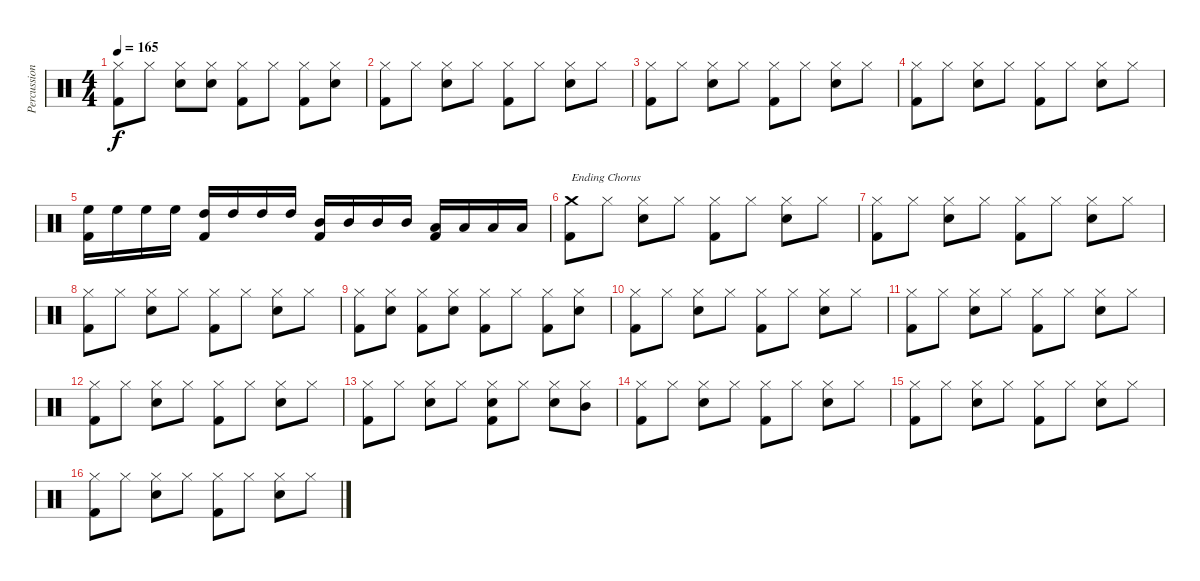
\track ("Percussion" "Percussion") {instrument percussion}
\staff {score}
\articulation defaults
\ts (4 4)
\tempo 165
\clef neutral
\ks c
("Hi-Hat (closed)" "Kick (hit) 2").8{dy f} "Hi-Hat (closed)".8 ("Hi-Hat (closed)" "Snare (hit) 2").8 ("Hi-Hat (closed)" "Snare (hit) 2").8 ("Hi-Hat (closed)" "Kick (hit) 2").8 "Hi-Hat (closed)".8 ("Hi-Hat (closed)" "Kick (hit) 2").8 ("Hi-Hat (closed)" "Snare (hit) 2").8 |
("Hi-Hat (closed)" "Kick (hit) 2").8 "Hi-Hat (closed)".8 ("Hi-Hat (closed)" "Snare (hit) 2").8 "Hi-Hat (closed)".8 ("Hi-Hat (closed)" "Kick (hit) 2").8 "Hi-Hat (closed)".8 ("Hi-Hat (closed)" "Snare (hit) 2").8 "Hi-Hat (closed)".8 |
("Hi-Hat (closed)" "Kick (hit) 2").8 "Hi-Hat (closed)".8 ("Hi-Hat (closed)" "Snare (hit) 2").8 "Hi-Hat (closed)".8 ("Hi-Hat (closed)" "Kick (hit) 2").8 "Hi-Hat (closed)".8 ("Hi-Hat (closed)" "Snare (hit) 2").8 "Hi-Hat (closed)".8 |
("Hi-Hat (closed)" "Kick (hit) 2").8 "Hi-Hat (closed)".8 ("Hi-Hat (closed)" "Snare (hit) 2").8 "Hi-Hat (closed)".8 ("Hi-Hat (closed)" "Kick (hit) 2").8 "Hi-Hat (closed)".8 ("Hi-Hat (closed)" "Snare (hit) 2").8 "Hi-Hat (closed)".8 |
("High Floor Tom (hit)" "Kick (hit) 2").16 "High Floor Tom (hit)".16 "High Floor Tom (hit)".16 "High Floor Tom (hit)".16 ("High Tom (hit)" "Kick (hit) 2").16 "High Tom (hit)".16 "High Tom (hit)".16 "High Tom (hit)".16 ("Mid Tom (hit)" "Kick (hit) 2").16 "Mid Tom (hit)".16 "Mid Tom (hit)".16 "Mid Tom (hit)".16 ("Low Tom (hit)" "Kick (hit) 2").16 "Low Tom (hit)".16 "Low Tom (hit)".16 "Low Tom (hit)".16 |
("Crash medium (hit)" "Kick (hit) 2").8{txt "Ending Chorus"} "Hi-Hat (closed)".8 ("Hi-Hat (closed)" "Snare (hit) 2").8 "Hi-Hat (closed)".8 ("Hi-Hat (closed)" "Kick (hit) 2").8 "Hi-Hat (closed)".8 ("Hi-Hat (closed)" "Snare (hit) 2").8 "Hi-Hat (closed)".8 |
("Hi-Hat (closed)" "Kick (hit) 2").8 "Hi-Hat (closed)".8 ("Hi-Hat (closed)" "Snare (hit) 2").8 "Hi-Hat (closed)".8 ("Hi-Hat (closed)" "Kick (hit) 2").8 "Hi-Hat (closed)".8 ("Hi-Hat (closed)" "Snare (hit) 2").8 "Hi-Hat (closed)".8 |
("Hi-Hat (closed)" "Kick (hit) 2").8 "Hi-Hat (closed)".8 ("Hi-Hat (closed)" "Snare (hit) 2").8 "Hi-Hat (closed)".8 ("Hi-Hat (closed)" "Kick (hit) 2").8 "Hi-Hat (closed)".8 ("Hi-Hat (closed)" "Snare (hit) 2").8 "Hi-Hat (closed)".8 |
("Hi-Hat (closed)" "Kick (hit) 2").8 ("Hi-Hat (closed)" "Snare (hit) 2").8 ("Hi-Hat (closed)" "Kick (hit) 2").8 ("Hi-Hat (closed)" "Snare (hit) 2").8 ("Hi-Hat (closed)" "Kick (hit) 2").8 "Hi-Hat (closed)".8 ("Hi-Hat (closed)" "Kick (hit) 2").8 ("Hi-Hat (closed)" "Snare (hit) 2").8 |
("Hi-Hat (closed)" "Kick (hit) 2").8 "Hi-Hat (closed)".8 ("Hi-Hat (closed)" "Snare (hit) 2").8 "Hi-Hat (closed)".8 ("Hi-Hat (closed)" "Kick (hit) 2").8 "Hi-Hat (closed)".8 ("Hi-Hat (closed)" "Snare (hit) 2").8 "Hi-Hat (closed)".8 |
("Hi-Hat (closed)" "Kick (hit) 2").8 "Hi-Hat (closed)".8 ("Hi-Hat (closed)" "Snare (hit) 2").8 "Hi-Hat (closed)".8 ("Hi-Hat (closed)" "Kick (hit) 2").8 "Hi-Hat (closed)".8 ("Hi-Hat (closed)" "Snare (hit) 2").8 "Hi-Hat (closed)".8 |
("Hi-Hat (closed)" "Kick (hit) 2").8 "Hi-Hat (closed)".8 ("Hi-Hat (closed)" "Snare (hit) 2").8 "Hi-Hat (closed)".8 ("Hi-Hat (closed)" "Kick (hit) 2").8 "Hi-Hat (closed)".8 ("Hi-Hat (closed)" "Snare (hit) 2").8 "Hi-Hat (closed)".8 |
("Hi-Hat (closed)" "Kick (hit) 2").8 "Hi-Hat (closed)".8 ("Hi-Hat (closed)" "Snare (hit) 2").8 "Hi-Hat (closed)".8 ("Hi-Hat (closed)" "Snare (hit) 2" "Kick (hit) 2").8 "Hi-Hat (closed)".8 ("Hi-Hat (closed)" "Snare (hit) 2").8 ("Hi-Hat (closed)" "Mid Tom (hit)").8 |
("Hi-Hat (closed)" "Kick (hit) 2").8 "Hi-Hat (closed)".8 ("Hi-Hat (closed)" "Snare (hit) 2").8 "Hi-Hat (closed)".8 ("Hi-Hat (closed)" "Kick (hit) 2").8 "Hi-Hat (closed)".8 ("Hi-Hat (closed)" "Snare (hit) 2").8 "Hi-Hat (closed)".8 |
("Hi-Hat (closed)" "Kick (hit) 2").8 "Hi-Hat (closed)".8 ("Hi-Hat (closed)" "Snare (hit) 2").8 "Hi-Hat (closed)".8 ("Hi-Hat (closed)" "Kick (hit) 2").8 "Hi-Hat (closed)".8 ("Hi-Hat (closed)" "Snare (hit) 2").8 "Hi-Hat (closed)".8 |
("Hi-Hat (closed)" "Kick (hit) 2").8 "Hi-Hat (closed)".8 ("Hi-Hat (closed)" "Snare (hit) 2").8 "Hi-Hat (closed)".8 ("Hi-Hat (closed)" "Kick (hit) 2").8 "Hi-Hat (closed)".8 ("Hi-Hat (closed)" "Snare (hit) 2").8 "Hi-Hat (closed)".8
